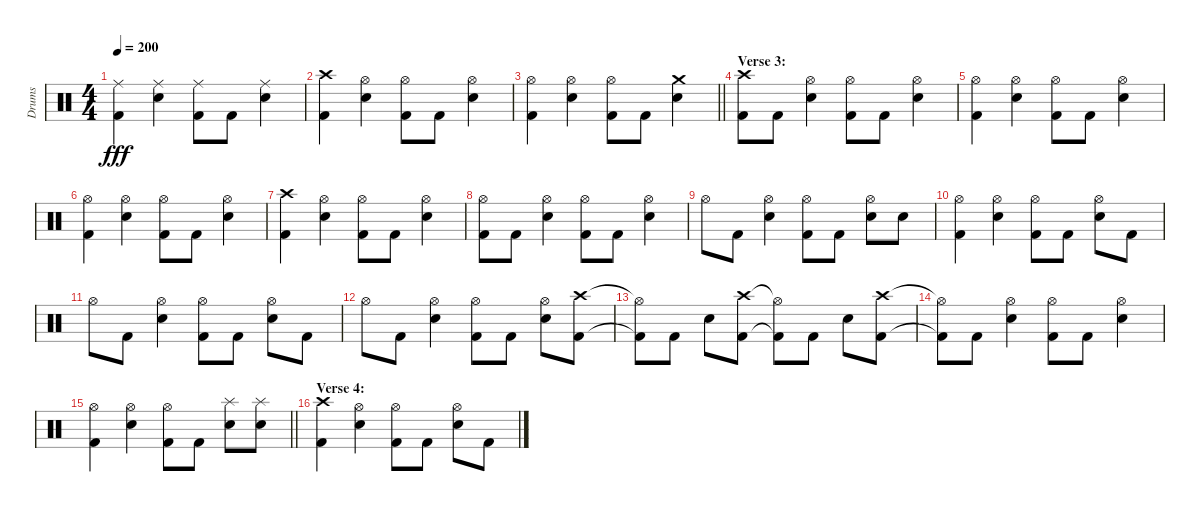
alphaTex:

\track ("Drums" "Drums") {instrument percussion}
\staff {score}
\articulation defaults
\ts (4 4)
\tempo 200
\clef neutral
\ks c
("Ride (middle)" "Kick (hit) 2").4{dy fff} ("Ride (middle)" "Electric Snare (hit)").4 ("Ride (middle)" "Kick (hit) 2").8 "Kick (hit) 2".8 ("Ride (middle)" "Electric Snare (hit)").4 |
("Crash high (hit)" "Kick (hit) 2").4 ("Hi-Hat (open)" "Electric Snare (hit)").4 ("Hi-Hat (open)" "Kick (hit) 2").8 "Kick (hit) 2".8 ("Hi-Hat (open)" "Electric Snare (hit)").4 |
\barLineRight lightlight
("Hi-Hat (open)" "Kick (hit) 2").4 ("Hi-Hat (open)" "Electric Snare (hit)").4 ("Hi-Hat (open)" "Kick (hit) 2").8 "Kick (hit) 2".8 ("Crash medium (hit)" "Electric Snare (hit)").4 |
\section ("" "Verse 3:")
("Crash high (hit)" "Kick (hit) 2").8 "Kick (hit) 2".8 ("Hi-Hat (open)" "Electric Snare (hit)").4 ("Hi-Hat (open)" "Kick (hit) 2").8 "Kick (hit) 2".8 ("Hi-Hat (open)" "Electric Snare (hit)").4 |
("Hi-Hat (open)" "Kick (hit) 2").4 ("Hi-Hat (open)" "Electric Snare (hit)").4 ("Hi-Hat (open)" "Kick (hit) 2").8 "Kick (hit) 2".8 ("Hi-Hat (open)" "Electric Snare (hit)").4 |
("Hi-Hat (open)" "Kick (hit) 2").4 ("Hi-Hat (open)" "Electric Snare (hit)").4 ("Hi-Hat (open)" "Kick (hit) 2").8 "Kick (hit) 2".8 ("Hi-Hat (open)" "Electric Snare (hit)").4 |
("Crash high (hit)" "Kick (hit) 2").4 ("Hi-Hat (open)" "Electric Snare (hit)").4 ("Hi-Hat (open)" "Kick (hit) 2").8 "Kick (hit) 2".8 ("Hi-Hat (open)" "Electric Snare (hit)").4 |
("Hi-Hat (open)" "Kick (hit) 2").8 "Kick (hit) 2".8 ("Hi-Hat (open)" "Electric Snare (hit)").4 ("Hi-Hat (open)" "Kick (hit) 2").8 "Kick (hit) 2".8 ("Hi-Hat (open)" "Electric Snare (hit)").4 |
"Hi-Hat (open)".8 "Kick (hit) 2".8 ("Hi-Hat (open)" "Electric Snare (hit)").4 ("Hi-Hat (open)" "Kick (hit) 2").8 "Kick (hit) 2".8 ("Hi-Hat (open)" "Electric Snare (hit)").8 "Electric Snare (hit)".8 |
("Hi-Hat (open)" "Kick (hit) 2").4 ("Hi-Hat (open)" "Electric Snare (hit)").4 ("Hi-Hat (open)" "Kick (hit) 2").8 "Kick (hit) 2".8 ("Hi-Hat (open)" "Electric Snare (hit)").8 "Kick (hit) 2".8 |
"Hi-Hat (open)".8 "Kick (hit) 2".8 ("Hi-Hat (open)" "Electric Snare (hit)").4 ("Hi-Hat (open)" "Kick (hit) 2").8 "Kick (hit) 2".8 ("Hi-Hat (open)" "Electric Snare (hit)").8 "Kick (hit) 2".8 |
"Hi-Hat (open)".8 "Kick (hit) 2".8 ("Hi-Hat (open)" "Electric Snare (hit)").4 ("Hi-Hat (open)" "Kick (hit) 2").8 "Kick (hit) 2".8 ("Hi-Hat (open)" "Electric Snare (hit)").8 ("Crash high (hit)" "Kick (hit) 2").8 |
("Hi-Hat (open)"{t} "Kick (hit) 2"{t}).8 "Kick (hit) 2".8 "Electric Snare (hit)".8 ("Crash high (hit)" "Kick (hit) 2").8 ("Hi-Hat (open)"{t} "Kick (hit) 2"{t}).8 "Kick (hit) 2".8 "Electric Snare (hit)".8 ("Crash high (hit)" "Kick (hit) 2").8 |
("Hi-Hat (open)"{t} "Kick (hit) 2"{t}).8 "Kick (hit) 2".8 ("Hi-Hat (open)" "Electric Snare (hit)").4 ("Hi-Hat (open)" "Kick (hit) 2").8 "Kick (hit) 2".8 ("Hi-Hat (open)" "Electric Snare (hit)").4 |
\barLineRight lightlight
("Hi-Hat (open)" "Kick (hit) 2").4 ("Hi-Hat (open)" "Electric Snare (hit)").4 ("Hi-Hat (open)" "Kick (hit) 2").8 "Kick (hit) 2".8 ("Splash (hit)" "Electric Snare (hit)").8 ("Splash (hit)" "Electric Snare (hit)").8 |
\section ("" "Verse 4:")
("Crash high (hit)" "Kick (hit) 2").4 ("Hi-Hat (open)" "Electric Snare (hit)").4 ("Hi-Hat (open)" "Kick (hit) 2").8 "Kick (hit) 2".8 ("Hi-Hat (open)" "Electric Snare (hit)").8 "Kick (hit) 2".8
